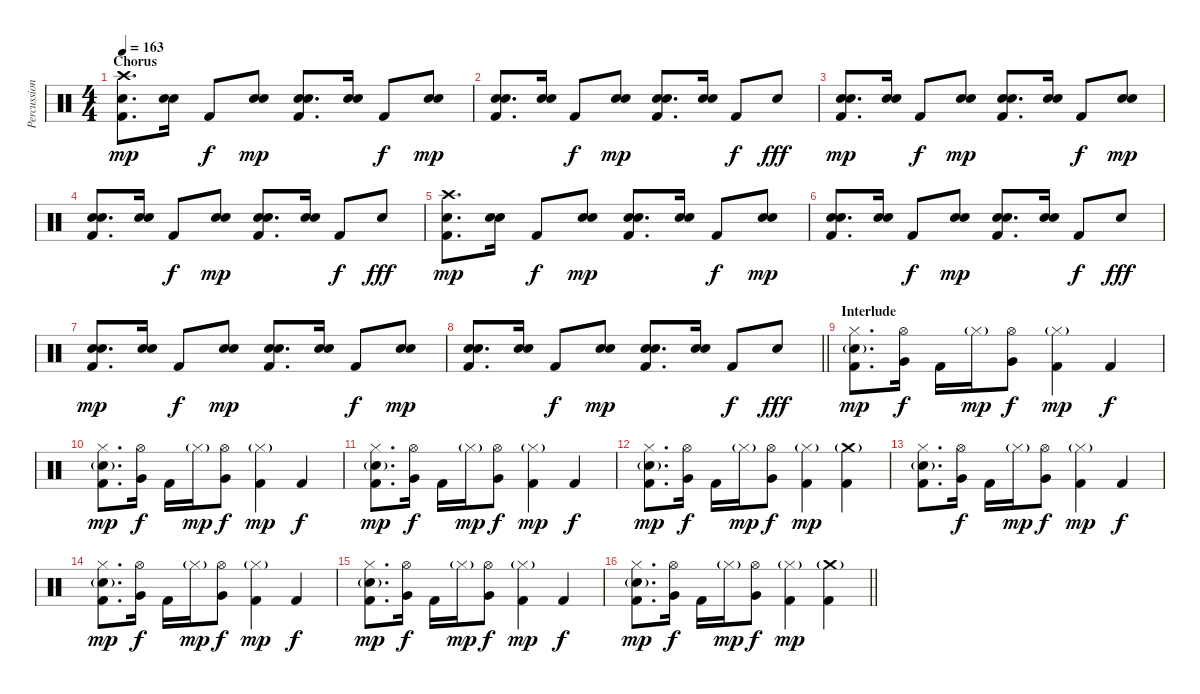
\track ("Percussion" "Percussion") {instrument percussion}
\staff {score}
\articulation defaults
\ts (4 4)
\section ("" "Chorus")
\tempo 163
\clef neutral
\ks c
("Crash high (hit)" "Snare (hit) 2" "Kick (hit) 2").8{d bd 120 dy mp} ("Snare (hit) 2" "Snare (hit) 2").16{bd 120} "Kick (hit) 2".8{dy f} ("Snare (hit) 2" "Snare (hit) 2").8{bd 120 dy mp} ("Snare (hit) 2" "Snare (hit) 2" "Kick (hit) 2").8{d bd 120} ("Snare (hit) 2" "Snare (hit) 2").16{bd 120} "Kick (hit) 2".8{dy f} ("Snare (hit) 2" "Snare (hit) 2").8{bd 120 dy mp} |
("Snare (hit) 2" "Snare (hit) 2" "Kick (hit) 2").8{d bd 120} ("Snare (hit) 2" "Snare (hit) 2").16{bd 120} "Kick (hit) 2".8{dy f} ("Snare (hit) 2" "Snare (hit) 2").8{bd 120 dy mp} ("Snare (hit) 2" "Snare (hit) 2" "Kick (hit) 2").8{d bd 120} ("Snare (hit) 2" "Snare (hit) 2").16{bd 120} "Kick (hit) 2".8{dy f} "Snare (hit) 2".8{dy fff} |
("Snare (hit) 2" "Snare (hit) 2" "Kick (hit) 2").8{d bd 120 dy mp} ("Snare (hit) 2" "Snare (hit) 2").16{bd 120} "Kick (hit) 2".8{dy f} ("Snare (hit) 2" "Snare (hit) 2").8{bd 120 dy mp} ("Snare (hit) 2" "Snare (hit) 2" "Kick (hit) 2").8{d bd 120} ("Snare (hit) 2" "Snare (hit) 2").16{bd 120} "Kick (hit) 2".8{dy f} ("Snare (hit) 2" "Snare (hit) 2").8{bd 120 dy mp} |
("Snare (hit) 2" "Snare (hit) 2" "Kick (hit) 2").8{d bd 120} ("Snare (hit) 2" "Snare (hit) 2").16{bd 120} "Kick (hit) 2".8{dy f} ("Snare (hit) 2" "Snare (hit) 2").8{bd 120 dy mp} ("Snare (hit) 2" "Snare (hit) 2" "Kick (hit) 2").8{d bd 120} ("Snare (hit) 2" "Snare (hit) 2").16{bd 120} "Kick (hit) 2".8{dy f} "Snare (hit) 2".8{dy fff} |
("Crash high (hit)" "Snare (hit) 2" "Kick (hit) 2").8{d bd 120 dy mp} ("Snare (hit) 2" "Snare (hit) 2").16{bd 120} "Kick (hit) 2".8{dy f} ("Snare (hit) 2" "Snare (hit) 2").8{bd 120 dy mp} ("Snare (hit) 2" "Snare (hit) 2" "Kick (hit) 2").8{d bd 120} ("Snare (hit) 2" "Snare (hit) 2").16{bd 120} "Kick (hit) 2".8{dy f} ("Snare (hit) 2" "Snare (hit) 2").8{bd 120 dy mp} |
("Snare (hit) 2" "Snare (hit) 2" "Kick (hit) 2").8{d bd 120} ("Snare (hit) 2" "Snare (hit) 2").16{bd 120} "Kick (hit) 2".8{dy f} ("Snare (hit) 2" "Snare (hit) 2").8{bd 120 dy mp} ("Snare (hit) 2" "Snare (hit) 2" "Kick (hit) 2").8{d bd 120} ("Snare (hit) 2" "Snare (hit) 2").16{bd 120} "Kick (hit) 2".8{dy f} "Snare (hit) 2".8{dy fff} |
("Snare (hit) 2" "Snare (hit) 2" "Kick (hit) 2").8{d bd 120 dy mp} ("Snare (hit) 2" "Snare (hit) 2").16{bd 120} "Kick (hit) 2".8{dy f} ("Snare (hit) 2" "Snare (hit) 2").8{bd 120 dy mp} ("Snare (hit) 2" "Snare (hit) 2" "Kick (hit) 2").8{d bd 120} ("Snare (hit) 2" "Snare (hit) 2").16{bd 120} "Kick (hit) 2".8{dy f} ("Snare (hit) 2" "Snare (hit) 2").8{bd 120 dy mp} |
\barLineRight lightlight
("Snare (hit) 2" "Snare (hit) 2" "Kick (hit) 2").8{d bd 120} ("Snare (hit) 2" "Snare (hit) 2").16{bd 120} "Kick (hit) 2".8{dy f} ("Snare (hit) 2" "Snare (hit) 2").8{bd 120 dy mp} ("Snare (hit) 2" "Snare (hit) 2" "Kick (hit) 2").8{d bd 120} ("Snare (hit) 2" "Snare (hit) 2").16{bd 120} "Kick (hit) 2".8{dy f} "Snare (hit) 2".8{dy fff} |
\section ("" "Interlude")
("Hi-Hat (closed)" "Snare (hit) 2"{g} "Kick (hit) 2").8{d dy mp} ("Hi-Hat (open)" "Very Low Tom (hit)").16{dy f} "Kick (hit) 2".16 "Hi-Hat (closed)"{g}.16{dy mp} ("Hi-Hat (open)" "Very Low Tom (hit)").8{dy f} ("Hi-Hat (closed)"{g} "Kick (hit) 2").4{dy mp} "Kick (hit) 2".4{dy f} |
("Hi-Hat (closed)" "Snare (hit) 2"{g} "Kick (hit) 2").8{d dy mp} ("Hi-Hat (open)" "Very Low Tom (hit)").16{dy f} "Kick (hit) 2".16 "Hi-Hat (closed)"{g}.16{dy mp} ("Hi-Hat (open)" "Very Low Tom (hit)").8{dy f} ("Hi-Hat (closed)"{g} "Kick (hit) 2").4{dy mp} "Kick (hit) 2".4{dy f} |
("Hi-Hat (closed)" "Snare (hit) 2"{g} "Kick (hit) 2").8{d dy mp} ("Hi-Hat (open)" "Very Low Tom (hit)").16{dy f} "Kick (hit) 2".16 "Hi-Hat (closed)"{g}.16{dy mp} ("Hi-Hat (open)" "Very Low Tom (hit)").8{dy f} ("Hi-Hat (closed)"{g} "Kick (hit) 2").4{dy mp} "Kick (hit) 2".4{dy f} |
("Hi-Hat (closed)" "Snare (hit) 2"{g} "Kick (hit) 2").8{d dy mp} ("Hi-Hat (open)" "Very Low Tom (hit)").16{dy f} "Kick (hit) 2".16 "Hi-Hat (closed)"{g}.16{dy mp} ("Hi-Hat (open)" "Very Low Tom (hit)").8{dy f} ("Hi-Hat (closed)"{g} "Kick (hit) 2").4{dy mp} ("Crash medium (hit)"{g} "Kick (hit) 2").4 |
("Hi-Hat (closed)" "Snare (hit) 2"{g} "Kick (hit) 2").8{d} ("Hi-Hat (open)" "Very Low Tom (hit)").16{dy f} "Kick (hit) 2".16 "Hi-Hat (closed)"{g}.16{dy mp} ("Hi-Hat (open)" "Very Low Tom (hit)").8{dy f} ("Hi-Hat (closed)"{g} "Kick (hit) 2").4{dy mp} "Kick (hit) 2".4{dy f} |
("Hi-Hat (closed)" "Snare (hit) 2"{g} "Kick (hit) 2").8{d dy mp} ("Hi-Hat (open)" "Very Low Tom (hit)").16{dy f} "Kick (hit) 2".16 "Hi-Hat (closed)"{g}.16{dy mp} ("Hi-Hat (open)" "Very Low Tom (hit)").8{dy f} ("Hi-Hat (closed)"{g} "Kick (hit) 2").4{dy mp} "Kick (hit) 2".4{dy f} |
("Hi-Hat (closed)" "Snare (hit) 2"{g} "Kick (hit) 2").8{d dy mp} ("Hi-Hat (open)" "Very Low Tom (hit)").16{dy f} "Kick (hit) 2".16 "Hi-Hat (closed)"{g}.16{dy mp} ("Hi-Hat (open)" "Very Low Tom (hit)").8{dy f} ("Hi-Hat (closed)"{g} "Kick (hit) 2").4{dy mp} "Kick (hit) 2".4{dy f} |
\barLineRight lightlight
("Hi-Hat (closed)" "Snare (hit) 2"{g} "Kick (hit) 2").8{d dy mp} ("Hi-Hat (open)" "Very Low Tom (hit)").16{dy f} "Kick (hit) 2".16 "Hi-Hat (closed)"{g}.16{dy mp} ("Hi-Hat (open)" "Very Low Tom (hit)").8{dy f} ("Hi-Hat (closed)"{g} "Kick (hit) 2").4{dy mp} ("Crash medium (hit)"{g} "Kick (hit) 2").4
